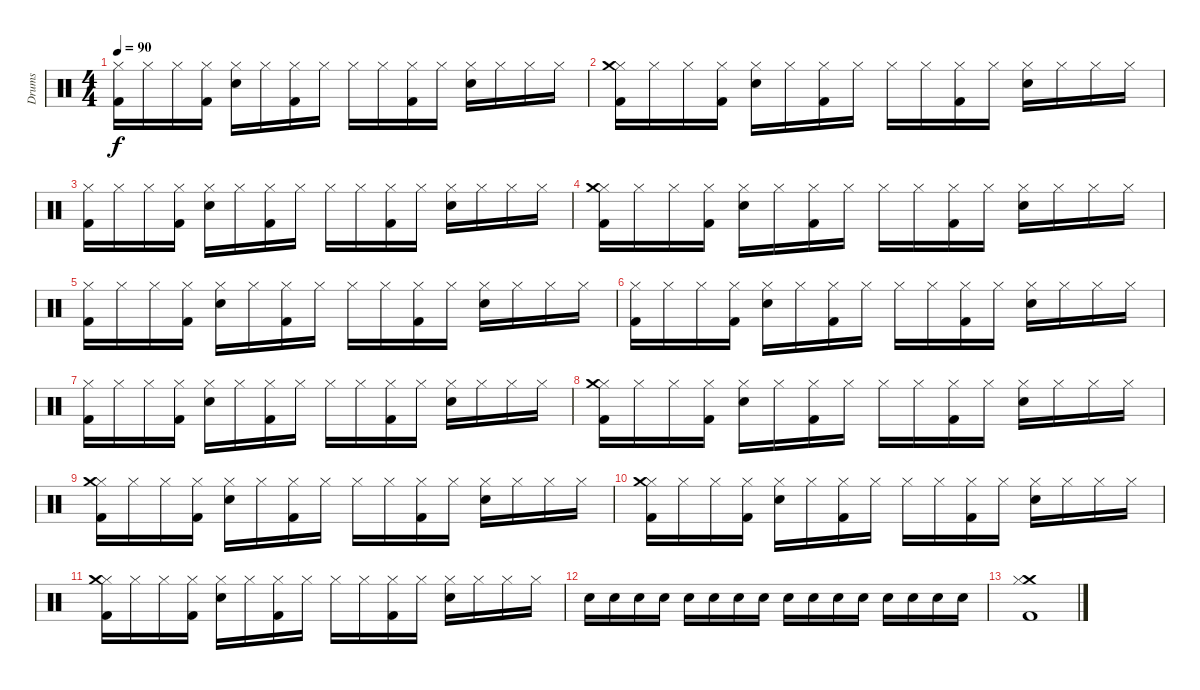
\track ("Drums" "Drums") {instrument percussion}
\staff {score}
\articulation defaults
\ts (4 4)
\tempo 90
\clef neutral
\ks c
("Hi-Hat (closed)" "Kick (hit) 2").16{dy f} "Hi-Hat (closed)".16 "Hi-Hat (closed)".16 ("Hi-Hat (closed)" "Kick (hit) 2").16 ("Hi-Hat (closed)" "Snare (hit) 2").16 "Hi-Hat (closed)".16 ("Hi-Hat (closed)" "Kick (hit) 2").16 "Hi-Hat (closed)".16 "Hi-Hat (closed)".16 "Hi-Hat (closed)".16 ("Hi-Hat (closed)" "Kick (hit) 2").16 "Hi-Hat (closed)".16 ("Hi-Hat (closed)" "Snare (hit) 2").16 "Hi-Hat (closed)".16 "Hi-Hat (closed)".16 "Hi-Hat (closed)".16 |
("Hi-Hat (closed)" "Kick (hit) 2" "Crash medium (hit)").16 "Hi-Hat (closed)".16 "Hi-Hat (closed)".16 ("Hi-Hat (closed)" "Kick (hit) 2").16 ("Hi-Hat (closed)" "Snare (hit) 2").16 "Hi-Hat (closed)".16 ("Hi-Hat (closed)" "Kick (hit) 2").16 "Hi-Hat (closed)".16 "Hi-Hat (closed)".16 "Hi-Hat (closed)".16 ("Hi-Hat (closed)" "Kick (hit) 2").16 "Hi-Hat (closed)".16 ("Hi-Hat (closed)" "Snare (hit) 2").16 "Hi-Hat (closed)".16 "Hi-Hat (closed)".16 "Hi-Hat (closed)".16 |
("Hi-Hat (closed)" "Kick (hit) 2").16 "Hi-Hat (closed)".16 "Hi-Hat (closed)".16 ("Hi-Hat (closed)" "Kick (hit) 2").16 ("Hi-Hat (closed)" "Snare (hit) 2").16 "Hi-Hat (closed)".16 ("Hi-Hat (closed)" "Kick (hit) 2").16 "Hi-Hat (closed)".16 "Hi-Hat (closed)".16 "Hi-Hat (closed)".16 ("Hi-Hat (closed)" "Kick (hit) 2").16 "Hi-Hat (closed)".16 ("Hi-Hat (closed)" "Snare (hit) 2").16 "Hi-Hat (closed)".16 "Hi-Hat (closed)".16 "Hi-Hat (closed)".16 |
("Hi-Hat (closed)" "Kick (hit) 2" "Crash medium (hit)").16 "Hi-Hat (closed)".16 "Hi-Hat (closed)".16 ("Hi-Hat (closed)" "Kick (hit) 2").16 ("Hi-Hat (closed)" "Snare (hit) 2").16 "Hi-Hat (closed)".16 ("Hi-Hat (closed)" "Kick (hit) 2").16 "Hi-Hat (closed)".16 "Hi-Hat (closed)".16 "Hi-Hat (closed)".16 ("Hi-Hat (closed)" "Kick (hit) 2").16 "Hi-Hat (closed)".16 ("Hi-Hat (closed)" "Snare (hit) 2").16 "Hi-Hat (closed)".16 "Hi-Hat (closed)".16 "Hi-Hat (closed)".16 |
("Hi-Hat (closed)" "Kick (hit) 2").16 "Hi-Hat (closed)".16 "Hi-Hat (closed)".16 ("Hi-Hat (closed)" "Kick (hit) 2").16 ("Hi-Hat (closed)" "Snare (hit) 2").16 "Hi-Hat (closed)".16 ("Hi-Hat (closed)" "Kick (hit) 2").16 "Hi-Hat (closed)".16 "Hi-Hat (closed)".16 "Hi-Hat (closed)".16 ("Hi-Hat (closed)" "Kick (hit) 2").16 "Hi-Hat (closed)".16 ("Hi-Hat (closed)" "Snare (hit) 2").16 "Hi-Hat (closed)".16 "Hi-Hat (closed)".16 "Hi-Hat (closed)".16 |
("Hi-Hat (closed)" "Kick (hit) 2").16 "Hi-Hat (closed)".16 "Hi-Hat (closed)".16 ("Hi-Hat (closed)" "Kick (hit) 2").16 ("Hi-Hat (closed)" "Snare (hit) 2").16 "Hi-Hat (closed)".16 ("Hi-Hat (closed)" "Kick (hit) 2").16 "Hi-Hat (closed)".16 "Hi-Hat (closed)".16 "Hi-Hat (closed)".16 ("Hi-Hat (closed)" "Kick (hit) 2").16 "Hi-Hat (closed)".16 ("Hi-Hat (closed)" "Snare (hit) 2").16 "Hi-Hat (closed)".16 "Hi-Hat (closed)".16 "Hi-Hat (closed)".16 |
("Hi-Hat (closed)" "Kick (hit) 2").16 "Hi-Hat (closed)".16 "Hi-Hat (closed)".16 ("Hi-Hat (closed)" "Kick (hit) 2").16 ("Hi-Hat (closed)" "Snare (hit) 2").16 "Hi-Hat (closed)".16 ("Hi-Hat (closed)" "Kick (hit) 2").16 "Hi-Hat (closed)".16 "Hi-Hat (closed)".16 "Hi-Hat (closed)".16 ("Hi-Hat (closed)" "Kick (hit) 2").16 "Hi-Hat (closed)".16 ("Hi-Hat (closed)" "Snare (hit) 2").16 "Hi-Hat (closed)".16 "Hi-Hat (closed)".16 "Hi-Hat (closed)".16 |
("Hi-Hat (closed)" "Kick (hit) 2" "Crash medium (hit)").16 "Hi-Hat (closed)".16 "Hi-Hat (closed)".16 ("Hi-Hat (closed)" "Kick (hit) 2").16 ("Hi-Hat (closed)" "Snare (hit) 2").16 "Hi-Hat (closed)".16 ("Hi-Hat (closed)" "Kick (hit) 2").16 "Hi-Hat (closed)".16 "Hi-Hat (closed)".16 "Hi-Hat (closed)".16 ("Hi-Hat (closed)" "Kick (hit) 2").16 "Hi-Hat (closed)".16 ("Hi-Hat (closed)" "Snare (hit) 2").16 "Hi-Hat (closed)".16 "Hi-Hat (closed)".16 "Hi-Hat (closed)".16 |
("Hi-Hat (closed)" "Kick (hit) 2" "Crash medium (hit)").16 "Hi-Hat (closed)".16 "Hi-Hat (closed)".16 ("Hi-Hat (closed)" "Kick (hit) 2").16 ("Hi-Hat (closed)" "Snare (hit) 2").16 "Hi-Hat (closed)".16 ("Hi-Hat (closed)" "Kick (hit) 2").16 "Hi-Hat (closed)".16 "Hi-Hat (closed)".16 "Hi-Hat (closed)".16 ("Hi-Hat (closed)" "Kick (hit) 2").16 "Hi-Hat (closed)".16 ("Hi-Hat (closed)" "Snare (hit) 2").16 "Hi-Hat (closed)".16 "Hi-Hat (closed)".16 "Hi-Hat (closed)".16 |
("Hi-Hat (closed)" "Kick (hit) 2" "Crash medium (hit)").16 "Hi-Hat (closed)".16 "Hi-Hat (closed)".16 ("Hi-Hat (closed)" "Kick (hit) 2").16 ("Hi-Hat (closed)" "Snare (hit) 2").16 "Hi-Hat (closed)".16 ("Hi-Hat (closed)" "Kick (hit) 2").16 "Hi-Hat (closed)".16 "Hi-Hat (closed)".16 "Hi-Hat (closed)".16 ("Hi-Hat (closed)" "Kick (hit) 2").16 "Hi-Hat (closed)".16 ("Hi-Hat (closed)" "Snare (hit) 2").16 "Hi-Hat (closed)".16 "Hi-Hat (closed)".16 "Hi-Hat (closed)".16 |
("Hi-Hat (closed)" "Kick (hit) 2" "Crash medium (hit)").16 "Hi-Hat (closed)".16 "Hi-Hat (closed)".16 ("Hi-Hat (closed)" "Kick (hit) 2").16 ("Hi-Hat (closed)" "Snare (hit) 2").16 "Hi-Hat (closed)".16 ("Hi-Hat (closed)" "Kick (hit) 2").16 "Hi-Hat (closed)".16 "Hi-Hat (closed)".16 "Hi-Hat (closed)".16 ("Hi-Hat (closed)" "Kick (hit) 2").16 "Hi-Hat (closed)".16 ("Hi-Hat (closed)" "Snare (hit) 2").16 "Hi-Hat (closed)".16 "Hi-Hat (closed)".16 "Hi-Hat (closed)".16 |
"Snare (hit) 2".16 "Snare (hit) 2".16 "Snare (hit) 2".16 "Snare (hit) 2".16 "Snare (hit) 2".16 "Snare (hit) 2".16 "Snare (hit) 2".16 "Snare (hit) 2".16 "Snare (hit) 2".16 "Snare (hit) 2".16 "Snare (hit) 2".16 "Snare (hit) 2".16 "Snare (hit) 2".16 "Snare (hit) 2".16 "Snare (hit) 2".16 "Snare (hit) 2".16 |
("Crash medium (hit)" "Kick (hit) 2" "Hi-Hat (closed)").1
